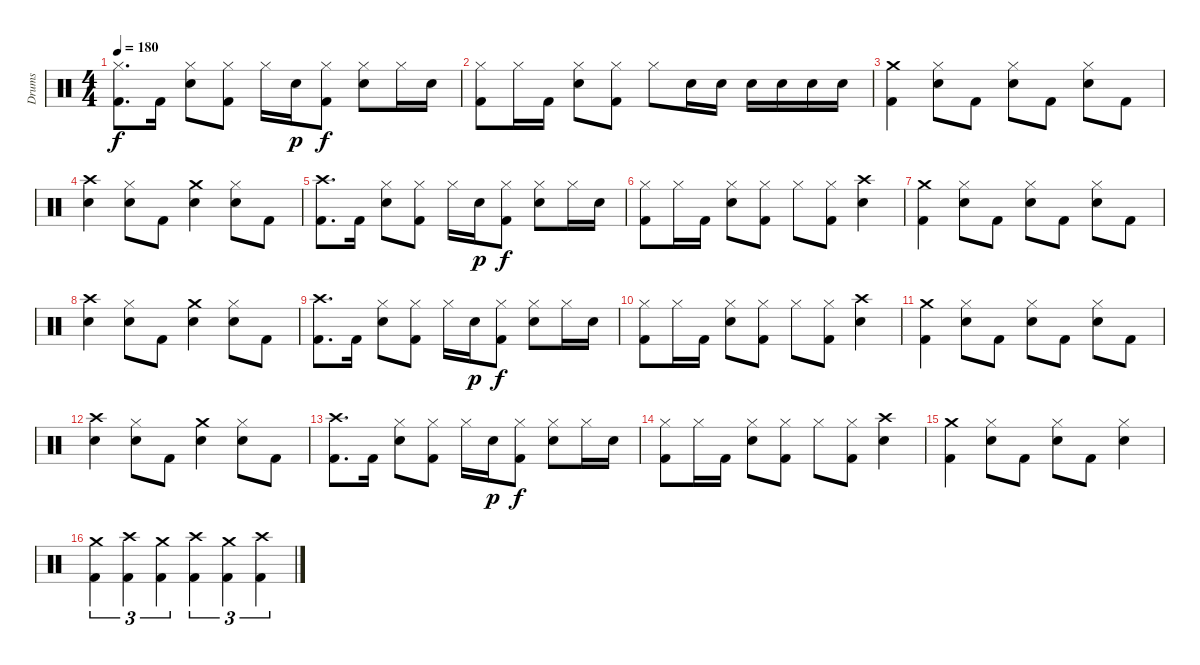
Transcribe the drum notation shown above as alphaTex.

\bracketExtendMode groupsimilarinstruments
\track ("Drumkit" "Drums") {solo instrument percussion}
\staff {score}
\articulation defaults
\ts (4 4)
\tempo 180
\clef neutral
\ks c
("Hi-Hat (closed)" "Kick (hit) 2").8{d dy f} "Kick (hit) 2".16 ("Hi-Hat (closed)" "Snare (hit) 2").8 ("Hi-Hat (closed)" "Kick (hit) 2").8 "Hi-Hat (closed)".16 "Snare (hit) 2".16{dy p} ("Hi-Hat (closed)" "Kick (hit) 2").8{dy f} ("Hi-Hat (closed)" "Snare (hit) 2").8 "Hi-Hat (closed)".16 "Snare (hit) 2".16 |
("Hi-Hat (closed)" "Kick (hit) 2").8 "Hi-Hat (closed)".16 "Kick (hit) 2".16 ("Hi-Hat (closed)" "Snare (hit) 2").8 ("Hi-Hat (closed)" "Kick (hit) 2").8 "Hi-Hat (closed)".8 "Snare (hit) 2".16 "Snare (hit) 2".16 "Snare (hit) 2".16 "Snare (hit) 2".16 "Snare (hit) 2".16 "Snare (hit) 2".16 |
("Crash medium (hit)" "Kick (hit) 2").4 ("Hi-Hat (closed)" "Snare (hit) 2").8 "Kick (hit) 2".8 ("Hi-Hat (closed)" "Snare (hit) 2").8 "Kick (hit) 2".8 ("Hi-Hat (closed)" "Snare (hit) 2").8 "Kick (hit) 2".8 |
("Crash high (hit)" "Snare (hit) 2").4 ("Hi-Hat (closed)" "Snare (hit) 2").8 "Kick (hit) 2".8 ("Crash medium (hit)" "Snare (hit) 2").4 ("Hi-Hat (closed)" "Snare (hit) 2").8 "Kick (hit) 2".8 |
("Crash high (hit)" "Kick (hit) 2").8{d} "Kick (hit) 2".16 ("Hi-Hat (closed)" "Snare (hit) 2").8 ("Hi-Hat (closed)" "Kick (hit) 2").8 "Hi-Hat (closed)".16 "Snare (hit) 2".16{dy p} ("Hi-Hat (closed)" "Kick (hit) 2").8{dy f} ("Hi-Hat (closed)" "Snare (hit) 2").8 "Hi-Hat (closed)".16 "Snare (hit) 2".16 |
("Hi-Hat (closed)" "Kick (hit) 2").8 "Hi-Hat (closed)".16 "Kick (hit) 2".16 ("Hi-Hat (closed)" "Snare (hit) 2").8 ("Hi-Hat (closed)" "Kick (hit) 2").8 "Hi-Hat (closed)".8 ("Hi-Hat (closed)" "Kick (hit) 2").8 ("Crash high (hit)" "Snare (hit) 2").4 |
("Crash medium (hit)" "Kick (hit) 2").4 ("Hi-Hat (closed)" "Snare (hit) 2").8 "Kick (hit) 2".8 ("Hi-Hat (closed)" "Snare (hit) 2").8 "Kick (hit) 2".8 ("Hi-Hat (closed)" "Snare (hit) 2").8 "Kick (hit) 2".8 |
("Crash high (hit)" "Snare (hit) 2").4 ("Hi-Hat (closed)" "Snare (hit) 2").8 "Kick (hit) 2".8 ("Crash medium (hit)" "Snare (hit) 2").4 ("Hi-Hat (closed)" "Snare (hit) 2").8 "Kick (hit) 2".8 |
("Crash high (hit)" "Kick (hit) 2").8{d} "Kick (hit) 2".16 ("Hi-Hat (closed)" "Snare (hit) 2").8 ("Hi-Hat (closed)" "Kick (hit) 2").8 "Hi-Hat (closed)".16 "Snare (hit) 2".16{dy p} ("Hi-Hat (closed)" "Kick (hit) 2").8{dy f} ("Hi-Hat (closed)" "Snare (hit) 2").8 "Hi-Hat (closed)".16 "Snare (hit) 2".16 |
("Hi-Hat (closed)" "Kick (hit) 2").8 "Hi-Hat (closed)".16 "Kick (hit) 2".16 ("Hi-Hat (closed)" "Snare (hit) 2").8 ("Hi-Hat (closed)" "Kick (hit) 2").8 "Hi-Hat (closed)".8 ("Hi-Hat (closed)" "Kick (hit) 2").8 ("Crash high (hit)" "Snare (hit) 2").4 |
("Crash medium (hit)" "Kick (hit) 2").4 ("Hi-Hat (closed)" "Snare (hit) 2").8 "Kick (hit) 2".8 ("Hi-Hat (closed)" "Snare (hit) 2").8 "Kick (hit) 2".8 ("Hi-Hat (closed)" "Snare (hit) 2").8 "Kick (hit) 2".8 |
("Crash high (hit)" "Snare (hit) 2").4 ("Hi-Hat (closed)" "Snare (hit) 2").8 "Kick (hit) 2".8 ("Crash medium (hit)" "Snare (hit) 2").4 ("Hi-Hat (closed)" "Snare (hit) 2").8 "Kick (hit) 2".8 |
("Crash high (hit)" "Kick (hit) 2").8{d} "Kick (hit) 2".16 ("Hi-Hat (closed)" "Snare (hit) 2").8 ("Hi-Hat (closed)" "Kick (hit) 2").8 "Hi-Hat (closed)".16 "Snare (hit) 2".16{dy p} ("Hi-Hat (closed)" "Kick (hit) 2").8{dy f} ("Hi-Hat (closed)" "Snare (hit) 2").8 "Hi-Hat (closed)".16 "Snare (hit) 2".16 |
("Hi-Hat (closed)" "Kick (hit) 2").8 "Hi-Hat (closed)".16 "Kick (hit) 2".16 ("Hi-Hat (closed)" "Snare (hit) 2").8 ("Hi-Hat (closed)" "Kick (hit) 2").8 "Hi-Hat (closed)".8 ("Hi-Hat (closed)" "Kick (hit) 2").8 ("Crash high (hit)" "Snare (hit) 2").4 |
("Crash medium (hit)" "Kick (hit) 2").4 ("Hi-Hat (closed)" "Snare (hit) 2").8 "Kick (hit) 2".8 ("Hi-Hat (closed)" "Snare (hit) 2").8 "Kick (hit) 2".8 ("Hi-Hat (closed)" "Snare (hit) 2").4 |
("Crash medium (hit)" "Kick (hit) 2").4{tu (3 2)} ("Crash high (hit)" "Kick (hit) 2").4{tu (3 2)} ("Crash medium (hit)" "Kick (hit) 2").4{tu (3 2)} ("Crash high (hit)" "Kick (hit) 2").4{tu (3 2)} ("Crash medium (hit)" "Kick (hit) 2").4{tu (3 2)} ("Crash high (hit)" "Kick (hit) 2").4{tu (3 2)}
